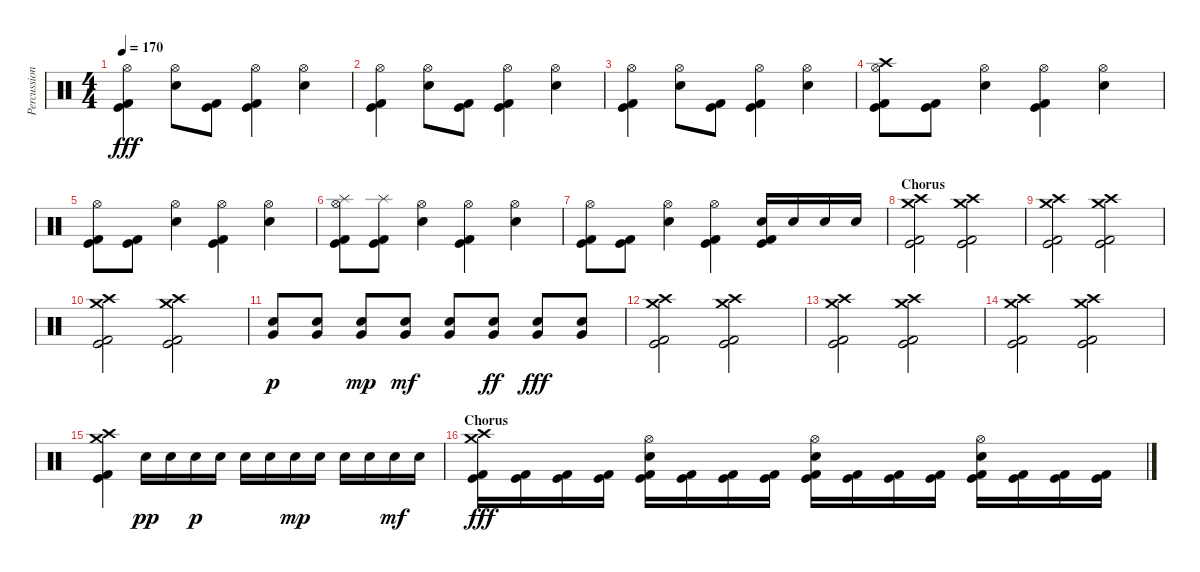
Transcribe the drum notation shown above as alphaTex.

\track ("Percussions" "Percussion") {instrument percussion}
\staff {score}
\articulation defaults
\ts (4 4)
\tempo 170
\clef neutral
\ks c
("Hi-Hat (open)" "Kick (hit)" "Kick (hit) 2").4{dy fff} ("Hi-Hat (open)" "Electric Snare (hit)").8 ("Kick (hit)" "Kick (hit) 2").8 ("Hi-Hat (open)" "Kick (hit)" "Kick (hit) 2").4 ("Hi-Hat (open)" "Electric Snare (hit)").4 |
("Hi-Hat (open)" "Kick (hit)" "Kick (hit) 2").4 ("Hi-Hat (open)" "Electric Snare (hit)").8 ("Kick (hit)" "Kick (hit) 2").8 ("Hi-Hat (open)" "Kick (hit)" "Kick (hit) 2").4 ("Hi-Hat (open)" "Electric Snare (hit)").4 |
("Hi-Hat (open)" "Kick (hit)" "Kick (hit) 2").4 ("Hi-Hat (open)" "Electric Snare (hit)").8 ("Kick (hit)" "Kick (hit) 2").8 ("Hi-Hat (open)" "Kick (hit)" "Kick (hit) 2").4 ("Hi-Hat (open)" "Electric Snare (hit)").4 |
("Crash high (hit)" "Hi-Hat (open)" "Kick (hit)" "Kick (hit) 2").8 ("Kick (hit)" "Kick (hit) 2").8 ("Hi-Hat (open)" "Electric Snare (hit)").4 ("Hi-Hat (open)" "Kick (hit)" "Kick (hit) 2").4 ("Hi-Hat (open)" "Electric Snare (hit)").4 |
("Hi-Hat (open)" "Kick (hit)" "Kick (hit) 2").8 ("Kick (hit)" "Kick (hit) 2").8 ("Hi-Hat (open)" "Electric Snare (hit)").4 ("Hi-Hat (open)" "Kick (hit)" "Kick (hit) 2").4 ("Hi-Hat (open)" "Electric Snare (hit)").4 |
("Splash (hit)" "Hi-Hat (open)" "Kick (hit)" "Kick (hit) 2").8 ("Splash (hit)" "Kick (hit)" "Kick (hit) 2").8 ("Hi-Hat (open)" "Electric Snare (hit)").4 ("Hi-Hat (open)" "Kick (hit)" "Kick (hit) 2").4 ("Hi-Hat (open)" "Electric Snare (hit)").4 |
("Hi-Hat (open)" "Kick (hit)" "Kick (hit) 2").8 ("Kick (hit)" "Kick (hit) 2").8 ("Hi-Hat (open)" "Electric Snare (hit)").4 ("Hi-Hat (open)" "Kick (hit)" "Kick (hit) 2").4 ("Electric Snare (hit)" "Kick (hit)" "Kick (hit) 2").16 "Electric Snare (hit)".16 "Electric Snare (hit)".16 "Electric Snare (hit)".16 |
\section ("" "Chorus")
("Crash high (hit)" "Crash medium (hit)" "Kick (hit)" "Kick (hit) 2").2 ("Crash high (hit)" "Crash medium (hit)" "Kick (hit)" "Kick (hit) 2").2 |
("Crash high (hit)" "Crash medium (hit)" "Kick (hit)" "Kick (hit) 2").2 ("Crash high (hit)" "Crash medium (hit)" "Kick (hit)" "Kick (hit) 2").2 |
("Crash high (hit)" "Crash medium (hit)" "Kick (hit)" "Kick (hit) 2").2 ("Crash high (hit)" "Crash medium (hit)" "Kick (hit)" "Kick (hit) 2").2 |
("Very Low Tom (hit)" "Electric Snare (hit)").8{dy p} ("Very Low Tom (hit)" "Electric Snare (hit)").8 ("Very Low Tom (hit)" "Electric Snare (hit)").8{dy mp} ("Very Low Tom (hit)" "Electric Snare (hit)").8{dy mf} ("Very Low Tom (hit)" "Electric Snare (hit)").8 ("Very Low Tom (hit)" "Electric Snare (hit)").8{dy ff} ("Very Low Tom (hit)" "Electric Snare (hit)").8{dy fff} ("Very Low Tom (hit)" "Electric Snare (hit)").8 |
("Crash high (hit)" "Crash medium (hit)" "Kick (hit)" "Kick (hit) 2").2 ("Crash high (hit)" "Crash medium (hit)" "Kick (hit)" "Kick (hit) 2").2 |
("Crash high (hit)" "Crash medium (hit)" "Kick (hit)" "Kick (hit) 2").2 ("Crash high (hit)" "Crash medium (hit)" "Kick (hit)" "Kick (hit) 2").2 |
("Crash high (hit)" "Crash medium (hit)" "Kick (hit)" "Kick (hit) 2").2 ("Crash high (hit)" "Crash medium (hit)" "Kick (hit)" "Kick (hit) 2").2 |
("Crash high (hit)" "Crash medium (hit)" "Kick (hit)" "Kick (hit) 2").4 "Snare (hit) 2".16{dy pp} "Snare (hit) 2".16 "Snare (hit) 2".16{dy p} "Snare (hit) 2".16 "Snare (hit) 2".16 "Snare (hit) 2".16 "Snare (hit) 2".16{dy mp} "Snare (hit) 2".16 "Snare (hit) 2".16 "Snare (hit) 2".16 "Snare (hit) 2".16{dy mf} "Snare (hit) 2".16 |
\section ("" "Chorus")
("Crash high (hit)" "Crash medium (hit)" "Kick (hit)" "Kick (hit) 2").16{dy fff} ("Kick (hit)" "Kick (hit) 2").16 ("Kick (hit)" "Kick (hit) 2").16 ("Kick (hit)" "Kick (hit) 2").16 ("Hi-Hat (open)" "Electric Snare (hit)" "Kick (hit)" "Kick (hit) 2").16 ("Kick (hit)" "Kick (hit) 2").16 ("Kick (hit)" "Kick (hit) 2").16 ("Kick (hit)" "Kick (hit) 2").16 ("Hi-Hat (open)" "Electric Snare (hit)" "Kick (hit)" "Kick (hit) 2").16 ("Kick (hit)" "Kick (hit) 2").16 ("Kick (hit)" "Kick (hit) 2").16 ("Kick (hit)" "Kick (hit) 2").16 ("Hi-Hat (open)" "Electric Snare (hit)" "Kick (hit)" "Kick (hit) 2").16 ("Kick (hit)" "Kick (hit) 2").16 ("Kick (hit)" "Kick (hit) 2").16 ("Kick (hit)" "Kick (hit) 2").16
